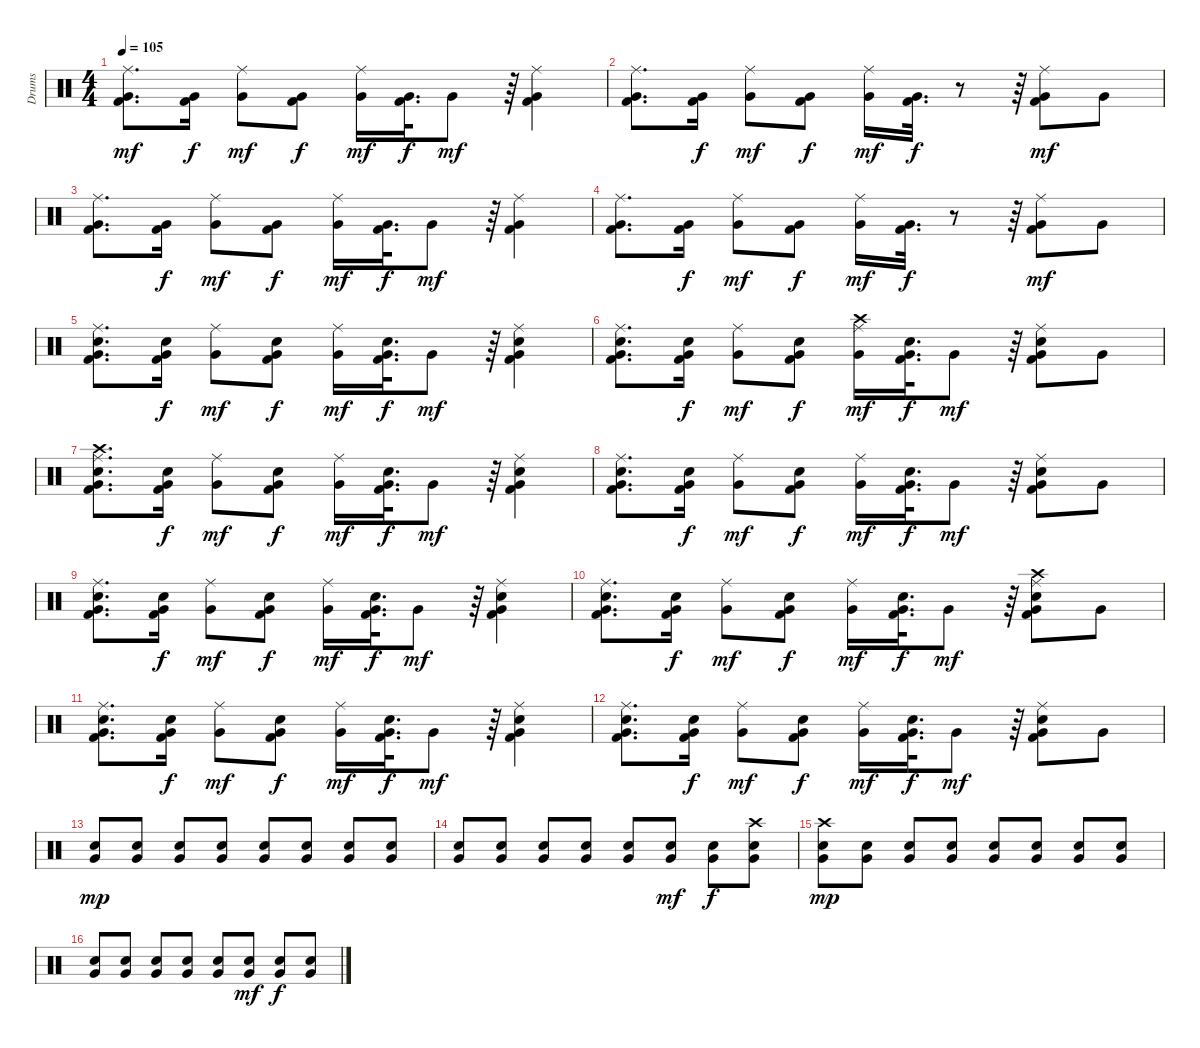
\track ("Drums" "Drums") {instrument percussion}
\staff {score}
\articulation defaults
\ts (4 4)
\tempo 105
\clef neutral
\ks c
("Ride (middle)" "Very Low Tom (hit)" "Kick (hit) 2").8{d dy mf} ("Very Low Tom (hit)" "Kick (hit) 2").16{dy f} ("Ride (middle)" "Very Low Tom (hit)").8{dy mf} ("Very Low Tom (hit)" "Kick (hit) 2").8{dy f} ("Ride (middle)" "Very Low Tom (hit)").16{dy mf} ("Very Low Tom (hit)" "Kick (hit) 2").32{d dy f} "Very Low Tom (hit)".8{dy mf} r.64 ("Ride (middle)" "Very Low Tom (hit)" "Kick (hit) 2").4 |
("Ride (middle)" "Very Low Tom (hit)" "Kick (hit) 2").8{d} ("Very Low Tom (hit)" "Kick (hit) 2").16{dy f} ("Ride (middle)" "Very Low Tom (hit)").8{dy mf} ("Very Low Tom (hit)" "Kick (hit) 2").8{dy f} ("Ride (middle)" "Very Low Tom (hit)").16{dy mf} ("Very Low Tom (hit)" "Kick (hit) 2").32{d dy f} r.8 r.64 ("Ride (middle)" "Very Low Tom (hit)" "Kick (hit) 2").8{dy mf} "Very Low Tom (hit)".8 |
("Ride (middle)" "Very Low Tom (hit)" "Kick (hit) 2").8{d} ("Very Low Tom (hit)" "Kick (hit) 2").16{dy f} ("Ride (middle)" "Very Low Tom (hit)").8{dy mf} ("Very Low Tom (hit)" "Kick (hit) 2").8{dy f} ("Ride (middle)" "Very Low Tom (hit)").16{dy mf} ("Very Low Tom (hit)" "Kick (hit) 2").32{d dy f} "Very Low Tom (hit)".8{dy mf} r.64 ("Ride (middle)" "Very Low Tom (hit)" "Kick (hit) 2").4 |
("Ride (middle)" "Very Low Tom (hit)" "Kick (hit) 2").8{d} ("Very Low Tom (hit)" "Kick (hit) 2").16{dy f} ("Ride (middle)" "Very Low Tom (hit)").8{dy mf} ("Very Low Tom (hit)" "Kick (hit) 2").8{dy f} ("Ride (middle)" "Very Low Tom (hit)").16{dy mf} ("Very Low Tom (hit)" "Kick (hit) 2").32{d dy f} r.8 r.64 ("Ride (middle)" "Very Low Tom (hit)" "Kick (hit) 2").8{dy mf} "Very Low Tom (hit)".8 |
("Ride (middle)" "Very Low Tom (hit)" "Snare (hit) 2" "Kick (hit) 2").8{d} ("Very Low Tom (hit)" "Snare (hit) 2" "Kick (hit) 2").16{dy f} ("Ride (middle)" "Very Low Tom (hit)").8{dy mf} ("Very Low Tom (hit)" "Snare (hit) 2" "Kick (hit) 2").8{dy f} ("Ride (middle)" "Very Low Tom (hit)").16{dy mf} ("Very Low Tom (hit)" "Snare (hit) 2" "Kick (hit) 2").32{d dy f} "Very Low Tom (hit)".8{dy mf} r.64 ("Ride (middle)" "Very Low Tom (hit)" "Snare (hit) 2" "Kick (hit) 2").4 |
("Ride (middle)" "Very Low Tom (hit)" "Snare (hit) 2" "Kick (hit) 2").8{d} ("Very Low Tom (hit)" "Snare (hit) 2" "Kick (hit) 2").16{dy f} ("Ride (middle)" "Very Low Tom (hit)").8{dy mf} ("Very Low Tom (hit)" "Snare (hit) 2" "Kick (hit) 2").8{dy f} ("Crash high (hit)" "Ride (middle)" "Very Low Tom (hit)").16{dy mf} ("Very Low Tom (hit)" "Snare (hit) 2" "Kick (hit) 2").32{d dy f} "Very Low Tom (hit)".8{dy mf} r.64 ("Ride (middle)" "Very Low Tom (hit)" "Snare (hit) 2" "Kick (hit) 2").8 "Very Low Tom (hit)".8 |
("Crash high (hit)" "Ride (middle)" "Very Low Tom (hit)" "Snare (hit) 2" "Kick (hit) 2").8{d} ("Very Low Tom (hit)" "Snare (hit) 2" "Kick (hit) 2").16{dy f} ("Ride (middle)" "Very Low Tom (hit)").8{dy mf} ("Very Low Tom (hit)" "Snare (hit) 2" "Kick (hit) 2").8{dy f} ("Ride (middle)" "Very Low Tom (hit)").16{dy mf} ("Very Low Tom (hit)" "Snare (hit) 2" "Kick (hit) 2").32{d dy f} "Very Low Tom (hit)".8{dy mf} r.64 ("Ride (middle)" "Very Low Tom (hit)" "Snare (hit) 2" "Kick (hit) 2").4 |
("Ride (middle)" "Very Low Tom (hit)" "Snare (hit) 2" "Kick (hit) 2").8{d} ("Very Low Tom (hit)" "Snare (hit) 2" "Kick (hit) 2").16{dy f} ("Ride (middle)" "Very Low Tom (hit)").8{dy mf} ("Very Low Tom (hit)" "Snare (hit) 2" "Kick (hit) 2").8{dy f} ("Ride (middle)" "Very Low Tom (hit)").16{dy mf} ("Very Low Tom (hit)" "Snare (hit) 2" "Kick (hit) 2").32{d dy f} "Very Low Tom (hit)".8{dy mf} r.64 ("Ride (middle)" "Very Low Tom (hit)" "Snare (hit) 2" "Kick (hit) 2").8 "Very Low Tom (hit)".8 |
("Ride (middle)" "Very Low Tom (hit)" "Snare (hit) 2" "Kick (hit) 2").8{d} ("Very Low Tom (hit)" "Snare (hit) 2" "Kick (hit) 2").16{dy f} ("Ride (middle)" "Very Low Tom (hit)").8{dy mf} ("Very Low Tom (hit)" "Snare (hit) 2" "Kick (hit) 2").8{dy f} ("Ride (middle)" "Very Low Tom (hit)").16{dy mf} ("Very Low Tom (hit)" "Snare (hit) 2" "Kick (hit) 2").32{d dy f} "Very Low Tom (hit)".8{dy mf} r.64 ("Ride (middle)" "Very Low Tom (hit)" "Snare (hit) 2" "Kick (hit) 2").4 |
("Ride (middle)" "Very Low Tom (hit)" "Snare (hit) 2" "Kick (hit) 2").8{d} ("Very Low Tom (hit)" "Snare (hit) 2" "Kick (hit) 2").16{dy f} ("Ride (middle)" "Very Low Tom (hit)").8{dy mf} ("Very Low Tom (hit)" "Snare (hit) 2" "Kick (hit) 2").8{dy f} ("Ride (middle)" "Very Low Tom (hit)").16{dy mf} ("Very Low Tom (hit)" "Snare (hit) 2" "Kick (hit) 2").32{d dy f} "Very Low Tom (hit)".8{dy mf} r.64 ("Crash high (hit)" "Ride (middle)" "Very Low Tom (hit)" "Snare (hit) 2" "Kick (hit) 2").8 "Very Low Tom (hit)".8 |
("Ride (middle)" "Very Low Tom (hit)" "Snare (hit) 2" "Kick (hit) 2").8{d} ("Very Low Tom (hit)" "Snare (hit) 2" "Kick (hit) 2").16{dy f} ("Ride (middle)" "Very Low Tom (hit)").8{dy mf} ("Very Low Tom (hit)" "Snare (hit) 2" "Kick (hit) 2").8{dy f} ("Ride (middle)" "Very Low Tom (hit)").16{dy mf} ("Very Low Tom (hit)" "Snare (hit) 2" "Kick (hit) 2").32{d dy f} "Very Low Tom (hit)".8{dy mf} r.64 ("Ride (middle)" "Very Low Tom (hit)" "Snare (hit) 2" "Kick (hit) 2").4 |
("Ride (middle)" "Very Low Tom (hit)" "Snare (hit) 2" "Kick (hit) 2").8{d} ("Very Low Tom (hit)" "Snare (hit) 2" "Kick (hit) 2").16{dy f} ("Ride (middle)" "Very Low Tom (hit)").8{dy mf} ("Very Low Tom (hit)" "Snare (hit) 2" "Kick (hit) 2").8{dy f} ("Ride (middle)" "Very Low Tom (hit)").16{dy mf} ("Very Low Tom (hit)" "Snare (hit) 2" "Kick (hit) 2").32{d dy f} "Very Low Tom (hit)".8{dy mf} r.64 ("Ride (middle)" "Very Low Tom (hit)" "Snare (hit) 2" "Kick (hit) 2").8 "Very Low Tom (hit)".8 |
("Snare (hit) 2" "Very Low Tom (hit)").8{dy mp} ("Snare (hit) 2" "Very Low Tom (hit)").8 ("Snare (hit) 2" "Very Low Tom (hit)").8 ("Snare (hit) 2" "Very Low Tom (hit)").8 ("Snare (hit) 2" "Very Low Tom (hit)").8 ("Snare (hit) 2" "Very Low Tom (hit)").8 ("Snare (hit) 2" "Very Low Tom (hit)").8 ("Snare (hit) 2" "Very Low Tom (hit)").8 |
("Snare (hit) 2" "Very Low Tom (hit)").8 ("Snare (hit) 2" "Very Low Tom (hit)").8 ("Snare (hit) 2" "Very Low Tom (hit)").8 ("Snare (hit) 2" "Very Low Tom (hit)").8 ("Snare (hit) 2" "Very Low Tom (hit)").8 ("Snare (hit) 2" "Very Low Tom (hit)").8{dy mf} ("Snare (hit) 2" "Very Low Tom (hit)").8{dy f} ("Crash high (hit)" "Snare (hit) 2" "Very Low Tom (hit)").8 |
("Crash high (hit)" "Snare (hit) 2" "Very Low Tom (hit)").8{dy mp} ("Snare (hit) 2" "Very Low Tom (hit)").8 ("Snare (hit) 2" "Very Low Tom (hit)").8 ("Snare (hit) 2" "Very Low Tom (hit)").8 ("Snare (hit) 2" "Very Low Tom (hit)").8 ("Snare (hit) 2" "Very Low Tom (hit)").8 ("Snare (hit) 2" "Very Low Tom (hit)").8 ("Snare (hit) 2" "Very Low Tom (hit)").8 |
("Snare (hit) 2" "Very Low Tom (hit)").8 ("Snare (hit) 2" "Very Low Tom (hit)").8 ("Snare (hit) 2" "Very Low Tom (hit)").8 ("Snare (hit) 2" "Very Low Tom (hit)").8 ("Snare (hit) 2" "Very Low Tom (hit)").8 ("Snare (hit) 2" "Very Low Tom (hit)").8{dy mf} ("Snare (hit) 2" "Very Low Tom (hit)").8{dy f} ("Snare (hit) 2" "Very Low Tom (hit)").8
